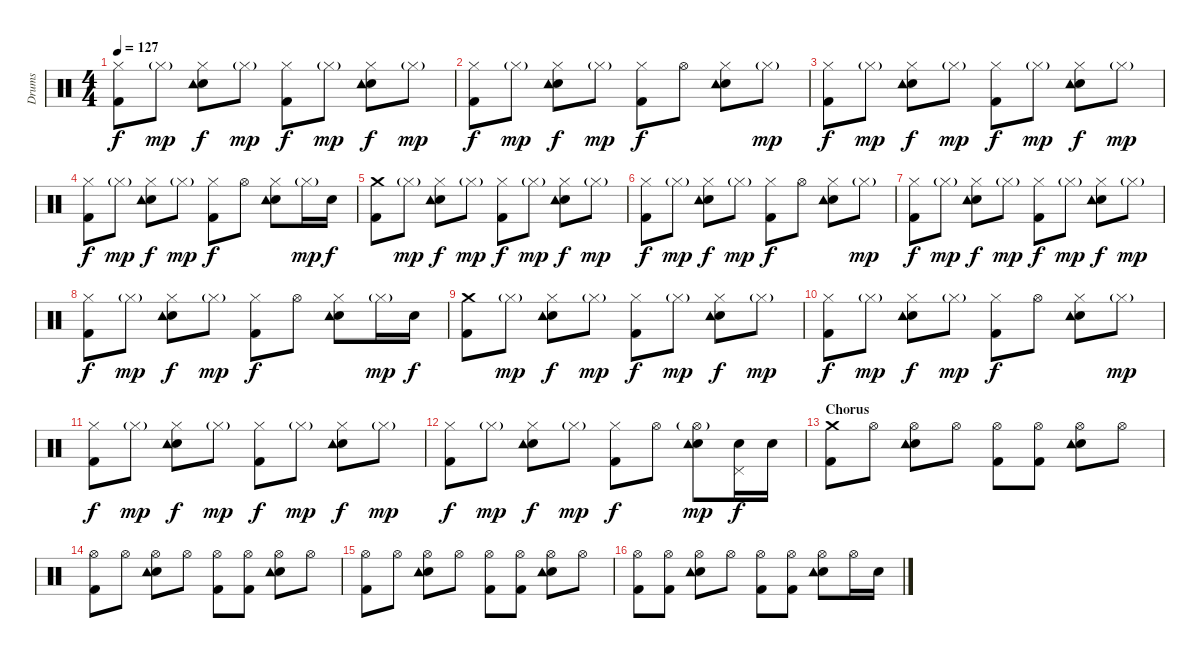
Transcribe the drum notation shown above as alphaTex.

\track ("Drums" "Drums") {instrument percussion}
\staff {score}
\articulation defaults
\ts (4 4)
\tempo 127
\clef neutral
\ks c
("Hi-Hat (closed)" "Kick (hit) 2").8{dy f} "Hi-Hat (closed)"{g}.8{dy mp} ("Hi-Hat (closed)" "Snare (hit) 2" "Tambourine (hit)").8{dy f} "Hi-Hat (closed)"{g}.8{dy mp} ("Hi-Hat (closed)" "Kick (hit) 2").8{dy f} "Hi-Hat (closed)"{g}.8{dy mp} ("Hi-Hat (closed)" "Snare (hit) 2" "Tambourine (hit)").8{dy f} "Hi-Hat (closed)"{g}.8{dy mp} |
("Hi-Hat (closed)" "Kick (hit) 2").8{dy f} "Hi-Hat (closed)"{g}.8{dy mp} ("Hi-Hat (closed)" "Snare (hit) 2" "Tambourine (hit)").8{dy f} "Hi-Hat (closed)"{g}.8{dy mp} ("Hi-Hat (closed)" "Kick (hit) 2").8{dy f} "Hi-Hat (open)".8 ("Hi-Hat (closed)" "Snare (hit) 2" "Tambourine (hit)").8 "Hi-Hat (closed)"{g}.8{dy mp} |
("Hi-Hat (closed)" "Kick (hit) 2").8{dy f} "Hi-Hat (closed)"{g}.8{dy mp} ("Hi-Hat (closed)" "Snare (hit) 2" "Tambourine (hit)").8{dy f} "Hi-Hat (closed)"{g}.8{dy mp} ("Hi-Hat (closed)" "Kick (hit) 2").8{dy f} "Hi-Hat (closed)"{g}.8{dy mp} ("Hi-Hat (closed)" "Snare (hit) 2" "Tambourine (hit)").8{dy f} "Hi-Hat (closed)"{g}.8{dy mp} |
("Hi-Hat (closed)" "Kick (hit) 2").8{dy f} "Hi-Hat (closed)"{g}.8{dy mp} ("Hi-Hat (closed)" "Snare (hit) 2" "Tambourine (hit)").8{dy f} "Hi-Hat (closed)"{g}.8{dy mp} ("Hi-Hat (closed)" "Kick (hit) 2").8{dy f} "Hi-Hat (open)".8 ("Hi-Hat (closed)" "Snare (hit) 2" "Tambourine (hit)").8 "Hi-Hat (closed)"{g}.16{dy mp} "Snare (hit) 2".16{dy f} |
("Crash medium (hit)" "Kick (hit) 2").8 "Hi-Hat (closed)"{g}.8{dy mp} ("Hi-Hat (closed)" "Snare (hit) 2" "Tambourine (hit)").8{dy f} "Hi-Hat (closed)"{g}.8{dy mp} ("Hi-Hat (closed)" "Kick (hit) 2").8{dy f} "Hi-Hat (closed)"{g}.8{dy mp} ("Hi-Hat (closed)" "Snare (hit) 2" "Tambourine (hit)").8{dy f} "Hi-Hat (closed)"{g}.8{dy mp} |
("Hi-Hat (closed)" "Kick (hit) 2").8{dy f} "Hi-Hat (closed)"{g}.8{dy mp} ("Hi-Hat (closed)" "Snare (hit) 2" "Tambourine (hit)").8{dy f} "Hi-Hat (closed)"{g}.8{dy mp} ("Hi-Hat (closed)" "Kick (hit) 2").8{dy f} "Hi-Hat (open)".8 ("Hi-Hat (closed)" "Snare (hit) 2" "Tambourine (hit)").8 "Hi-Hat (closed)"{g}.8{dy mp} |
("Hi-Hat (closed)" "Kick (hit) 2").8{dy f} "Hi-Hat (closed)"{g}.8{dy mp} ("Hi-Hat (closed)" "Snare (hit) 2" "Tambourine (hit)").8{dy f} "Hi-Hat (closed)"{g}.8{dy mp} ("Hi-Hat (closed)" "Kick (hit) 2").8{dy f} "Hi-Hat (closed)"{g}.8{dy mp} ("Hi-Hat (closed)" "Snare (hit) 2" "Tambourine (hit)").8{dy f} "Hi-Hat (closed)"{g}.8{dy mp} |
("Hi-Hat (closed)" "Kick (hit) 2").8{dy f} "Hi-Hat (closed)"{g}.8{dy mp} ("Hi-Hat (closed)" "Snare (hit) 2" "Tambourine (hit)").8{dy f} "Hi-Hat (closed)"{g}.8{dy mp} ("Hi-Hat (closed)" "Kick (hit) 2").8{dy f} "Hi-Hat (open)".8 ("Hi-Hat (closed)" "Snare (hit) 2" "Tambourine (hit)").8 "Hi-Hat (closed)"{g}.16{dy mp} "Snare (hit) 2".16{dy f} |
("Crash medium (hit)" "Kick (hit) 2").8 "Hi-Hat (closed)"{g}.8{dy mp} ("Hi-Hat (closed)" "Snare (hit) 2" "Tambourine (hit)").8{dy f} "Hi-Hat (closed)"{g}.8{dy mp} ("Hi-Hat (closed)" "Kick (hit) 2").8{dy f} "Hi-Hat (closed)"{g}.8{dy mp} ("Hi-Hat (closed)" "Snare (hit) 2" "Tambourine (hit)").8{dy f} "Hi-Hat (closed)"{g}.8{dy mp} |
("Hi-Hat (closed)" "Kick (hit) 2").8{dy f} "Hi-Hat (closed)"{g}.8{dy mp} ("Hi-Hat (closed)" "Snare (hit) 2" "Tambourine (hit)").8{dy f} "Hi-Hat (closed)"{g}.8{dy mp} ("Hi-Hat (closed)" "Kick (hit) 2").8{dy f} "Hi-Hat (open)".8 ("Hi-Hat (closed)" "Snare (hit) 2" "Tambourine (hit)").8 "Hi-Hat (closed)"{g}.8{dy mp} |
("Hi-Hat (closed)" "Kick (hit) 2").8{dy f} "Hi-Hat (closed)"{g}.8{dy mp} ("Hi-Hat (closed)" "Snare (hit) 2" "Tambourine (hit)").8{dy f} "Hi-Hat (closed)"{g}.8{dy mp} ("Hi-Hat (closed)" "Kick (hit) 2").8{dy f} "Hi-Hat (closed)"{g}.8{dy mp} ("Hi-Hat (closed)" "Snare (hit) 2" "Tambourine (hit)").8{dy f} "Hi-Hat (closed)"{g}.8{dy mp} |
("Hi-Hat (closed)" "Kick (hit) 2").8{dy f} "Hi-Hat (closed)"{g}.8{dy mp} ("Hi-Hat (closed)" "Snare (hit) 2" "Tambourine (hit)").8{dy f} "Hi-Hat (closed)"{g}.8{dy mp} ("Hi-Hat (closed)" "Kick (hit) 2").8{dy f} "Hi-Hat (open)".8 ("Hi-Hat (open)"{g} "Snare (hit) 2" "Tambourine (hit)").8{dy mp} ("Pedal Hi-Hat (hit)" "Snare (hit) 2").16{dy f} "Snare (hit) 2".16 |
\section ("" "Chorus")
("Crash medium (hit)" "Kick (hit) 2").8 "Hi-Hat (open)".8 ("Hi-Hat (open)" "Snare (hit) 2" "Tambourine (hit)").8 "Hi-Hat (open)".8 ("Hi-Hat (open)" "Kick (hit) 2").8 ("Hi-Hat (open)" "Kick (hit) 2").8 ("Hi-Hat (open)" "Snare (hit) 2" "Tambourine (hit)").8 "Hi-Hat (open)".8 |
("Hi-Hat (open)" "Kick (hit) 2").8 "Hi-Hat (open)".8 ("Hi-Hat (open)" "Snare (hit) 2" "Tambourine (hit)").8 "Hi-Hat (open)".8 ("Hi-Hat (open)" "Kick (hit) 2").8 ("Hi-Hat (open)" "Kick (hit) 2").8 ("Hi-Hat (open)" "Snare (hit) 2" "Tambourine (hit)").8 "Hi-Hat (open)".8 |
("Hi-Hat (open)" "Kick (hit) 2").8 "Hi-Hat (open)".8 ("Hi-Hat (open)" "Snare (hit) 2" "Tambourine (hit)").8 "Hi-Hat (open)".8 ("Hi-Hat (open)" "Kick (hit) 2").8 ("Hi-Hat (open)" "Kick (hit) 2").8 ("Hi-Hat (open)" "Snare (hit) 2" "Tambourine (hit)").8 "Hi-Hat (open)".8 |
("Hi-Hat (open)" "Kick (hit) 2").8 ("Hi-Hat (open)" "Kick (hit) 2").8 ("Hi-Hat (open)" "Snare (hit) 2" "Tambourine (hit)").8 "Hi-Hat (open)".8 ("Hi-Hat (open)" "Kick (hit) 2").8 ("Hi-Hat (open)" "Kick (hit) 2").8 ("Hi-Hat (open)" "Snare (hit) 2" "Tambourine (hit)").8 "Hi-Hat (open)".16 "Snare (hit) 2".16
